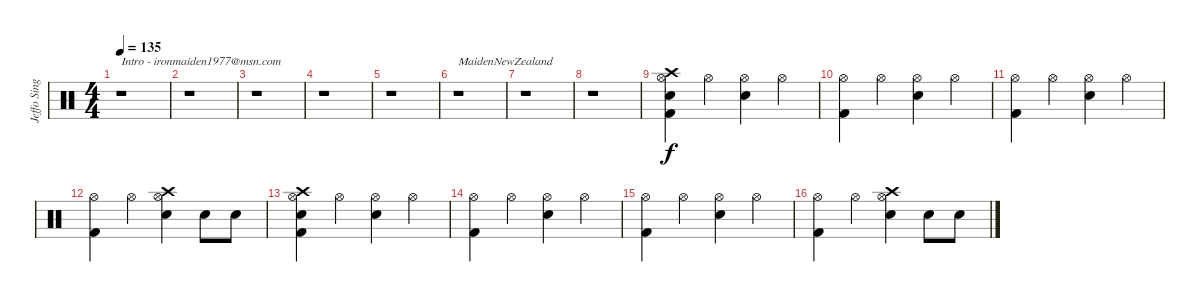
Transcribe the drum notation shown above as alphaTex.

\track ("Jeffo Singer" "Jeffo Sing") {instrument percussion}
\staff {score}
\articulation defaults
\ts (4 4)
\tempo 135
\clef neutral
\ks c
r.1{txt "Intro - ironmaiden1977@msn.com" dy f} |
r.1 |
r.1 |
r.1 |
r.1 |
r.1{txt "MaidenNewZealand"} |
r.1 |
r.1 |
("Hi-Hat (open)" "Kick (hit) 2" "Snare (hit) 2" "Crash high (hit)").4 "Hi-Hat (open)".4 ("Hi-Hat (open)" "Snare (hit) 2").4 "Hi-Hat (open)".4 |
("Hi-Hat (open)" "Kick (hit) 2").4 "Hi-Hat (open)".4 ("Hi-Hat (open)" "Snare (hit) 2").4 "Hi-Hat (open)".4 |
("Hi-Hat (open)" "Kick (hit) 2").4 "Hi-Hat (open)".4 ("Hi-Hat (open)" "Snare (hit) 2").4 "Hi-Hat (open)".4 |
("Hi-Hat (open)" "Kick (hit) 2").4 "Hi-Hat (open)".4 ("Hi-Hat (open)" "Snare (hit) 2" "Crash high (hit)").4 "Snare (hit) 2".8 "Snare (hit) 2".8 |
("Hi-Hat (open)" "Kick (hit) 2" "Snare (hit) 2" "Crash high (hit)").4 "Hi-Hat (open)".4 ("Hi-Hat (open)" "Snare (hit) 2").4 "Hi-Hat (open)".4 |
("Hi-Hat (open)" "Kick (hit) 2").4 "Hi-Hat (open)".4 ("Hi-Hat (open)" "Snare (hit) 2").4 "Hi-Hat (open)".4 |
("Hi-Hat (open)" "Kick (hit) 2").4 "Hi-Hat (open)".4 ("Hi-Hat (open)" "Snare (hit) 2").4 "Hi-Hat (open)".4 |
("Hi-Hat (open)" "Kick (hit) 2").4 "Hi-Hat (open)".4 ("Hi-Hat (open)" "Snare (hit) 2" "Crash high (hit)").4 "Snare (hit) 2".8 "Snare (hit) 2".8
